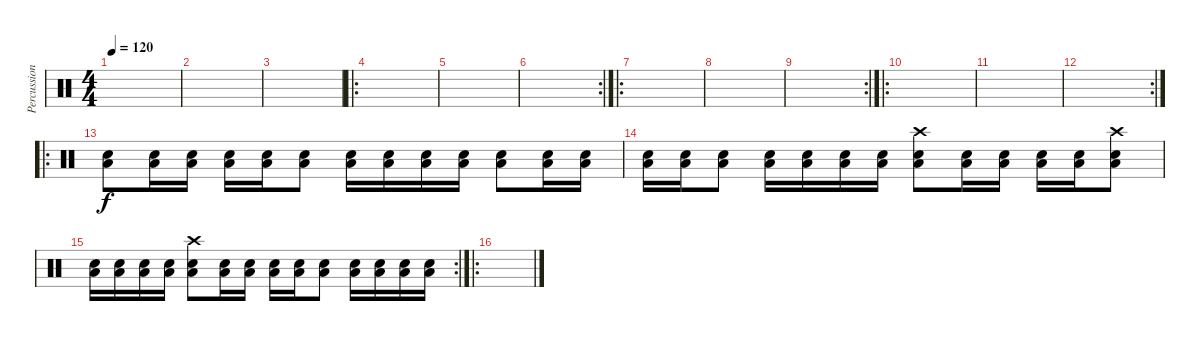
\track ("Percussions" "Percussion") {instrument percussion}
\staff {score}
\articulation defaults
\ts (4 4)
\tempo 120
\clef neutral
\ks c
|
|
|
\ro
|
|
\rc 2
|
\ro
|
|
\rc 2
|
\ro
|
|
\rc 2
|
\ro
("Low Floor Tom (hit)" "Electric Snare (hit)").8 ("Low Tom (hit)" "Electric Snare (hit)").16 ("Low Tom (hit)" "Electric Snare (hit)").16 ("Low Tom (hit)" "Electric Snare (hit)").16 ("Low Tom (hit)" "Electric Snare (hit)").16 ("Low Floor Tom (hit)" "Electric Snare (hit)").8 ("Low Tom (hit)" "Electric Snare (hit)").16 ("Low Tom (hit)" "Electric Snare (hit)").16 ("Low Tom (hit)" "Electric Snare (hit)").16 ("Low Tom (hit)" "Electric Snare (hit)").16 ("Low Floor Tom (hit)" "Electric Snare (hit)").8 ("Low Tom (hit)" "Electric Snare (hit)").16 ("Low Tom (hit)" "Electric Snare (hit)").16 |
("Low Tom (hit)" "Electric Snare (hit)").16 ("Low Tom (hit)" "Electric Snare (hit)").16 ("Low Floor Tom (hit)" "Electric Snare (hit)").8 ("Low Tom (hit)" "Electric Snare (hit)").16 ("Low Tom (hit)" "Electric Snare (hit)").16 ("Low Tom (hit)" "Electric Snare (hit)").16 ("Low Tom (hit)" "Electric Snare (hit)").16 ("Low Floor Tom (hit)" "Crash high (hit)" "Electric Snare (hit)").8 ("Low Tom (hit)" "Electric Snare (hit)").16 ("Low Tom (hit)" "Electric Snare (hit)").16 ("Low Tom (hit)" "Electric Snare (hit)").16 ("Low Tom (hit)" "Electric Snare (hit)").16 ("Low Floor Tom (hit)" "Crash high (hit)" "Electric Snare (hit)").8 |
\rc 2
("Low Tom (hit)" "Electric Snare (hit)").16 ("Low Tom (hit)" "Electric Snare (hit)").16 ("Low Tom (hit)" "Electric Snare (hit)").16 ("Low Tom (hit)" "Electric Snare (hit)").16 ("Low Floor Tom (hit)" "Crash high (hit)" "Electric Snare (hit)").8 ("Low Tom (hit)" "Electric Snare (hit)").16 ("Low Tom (hit)" "Electric Snare (hit)").16 ("Low Tom (hit)" "Electric Snare (hit)").16 ("Low Tom (hit)" "Electric Snare (hit)").16 ("Low Floor Tom (hit)" "Electric Snare (hit)").8 ("Low Tom (hit)" "Electric Snare (hit)").16 ("Low Tom (hit)" "Electric Snare (hit)").16 ("Low Tom (hit)" "Electric Snare (hit)").16 ("Low Tom (hit)" "Electric Snare (hit)").16 |
\ro
